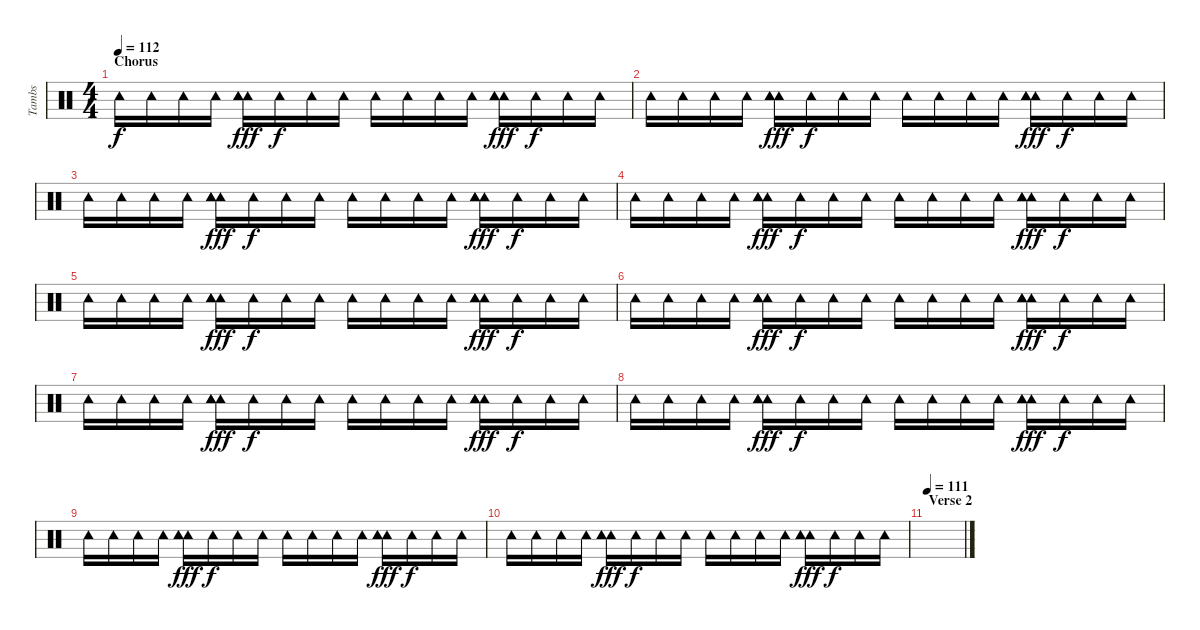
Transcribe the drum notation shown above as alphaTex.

\track ("Tambs" "Tambs") {instrument percussion}
\staff {score}
\articulation defaults
\ts (4 4)
\section ("" "Chorus")
\tempo 112
\clef neutral
\ks c "Tambourine (hit)".16{dy f} "Tambourine (hit)".16 "Tambourine (hit)".16 "Tambourine (hit)".16
("Tambourine (hit)" "Tambourine (hit)" "Tambourine (hit)").16{dy fff balance 6} "Tambourine (hit)".16{dy f balance 11} "Tambourine (hit)".16 "Tambourine (hit)".16 "Tambourine (hit)".16 "Tambourine (hit)".16 "Tambourine (hit)".16 "Tambourine (hit)".16 ("Tambourine (hit)" "Tambourine (hit)" "Tambourine (hit)").16{dy fff balance 6} "Tambourine (hit)".16{dy f balance 11} "Tambourine (hit)".16 "Tambourine (hit)".16 |
"Tambourine (hit)".16 "Tambourine (hit)".16 "Tambourine (hit)".16 "Tambourine (hit)".16 ("Tambourine (hit)" "Tambourine (hit)" "Tambourine (hit)").16{dy fff balance 6} "Tambourine (hit)".16{dy f balance 11} "Tambourine (hit)".16 "Tambourine (hit)".16 "Tambourine (hit)".16 "Tambourine (hit)".16 "Tambourine (hit)".16 "Tambourine (hit)".16 ("Tambourine (hit)" "Tambourine (hit)" "Tambourine (hit)").16{dy fff balance 6} "Tambourine (hit)".16{dy f balance 11} "Tambourine (hit)".16 "Tambourine (hit)".16 |
"Tambourine (hit)".16 "Tambourine (hit)".16 "Tambourine (hit)".16 "Tambourine (hit)".16 ("Tambourine (hit)" "Tambourine (hit)" "Tambourine (hit)").16{dy fff balance 6} "Tambourine (hit)".16{dy f balance 11} "Tambourine (hit)".16 "Tambourine (hit)".16 "Tambourine (hit)".16 "Tambourine (hit)".16 "Tambourine (hit)".16 "Tambourine (hit)".16 ("Tambourine (hit)" "Tambourine (hit)" "Tambourine (hit)").16{dy fff balance 6} "Tambourine (hit)".16{dy f balance 11} "Tambourine (hit)".16 "Tambourine (hit)".16 |
"Tambourine (hit)".16 "Tambourine (hit)".16 "Tambourine (hit)".16 "Tambourine (hit)".16 ("Tambourine (hit)" "Tambourine (hit)" "Tambourine (hit)").16{dy fff balance 6} "Tambourine (hit)".16{dy f balance 11} "Tambourine (hit)".16 "Tambourine (hit)".16 "Tambourine (hit)".16 "Tambourine (hit)".16 "Tambourine (hit)".16 "Tambourine (hit)".16 ("Tambourine (hit)" "Tambourine (hit)" "Tambourine (hit)").16{dy fff balance 6} "Tambourine (hit)".16{dy f balance 11} "Tambourine (hit)".16 "Tambourine (hit)".16 |
"Tambourine (hit)".16 "Tambourine (hit)".16 "Tambourine (hit)".16 "Tambourine (hit)".16 ("Tambourine (hit)" "Tambourine (hit)" "Tambourine (hit)").16{dy fff balance 6} "Tambourine (hit)".16{dy f balance 11} "Tambourine (hit)".16 "Tambourine (hit)".16 "Tambourine (hit)".16 "Tambourine (hit)".16 "Tambourine (hit)".16 "Tambourine (hit)".16 ("Tambourine (hit)" "Tambourine (hit)" "Tambourine (hit)").16{dy fff balance 6} "Tambourine (hit)".16{dy f balance 11} "Tambourine (hit)".16 "Tambourine (hit)".16 |
"Tambourine (hit)".16 "Tambourine (hit)".16 "Tambourine (hit)".16 "Tambourine (hit)".16 ("Tambourine (hit)" "Tambourine (hit)" "Tambourine (hit)").16{dy fff balance 6} "Tambourine (hit)".16{dy f balance 11} "Tambourine (hit)".16 "Tambourine (hit)".16 "Tambourine (hit)".16 "Tambourine (hit)".16 "Tambourine (hit)".16 "Tambourine (hit)".16 ("Tambourine (hit)" "Tambourine (hit)" "Tambourine (hit)").16{dy fff balance 6} "Tambourine (hit)".16{dy f balance 11} "Tambourine (hit)".16 "Tambourine (hit)".16 |
"Tambourine (hit)".16 "Tambourine (hit)".16 "Tambourine (hit)".16 "Tambourine (hit)".16 ("Tambourine (hit)" "Tambourine (hit)" "Tambourine (hit)").16{dy fff balance 6} "Tambourine (hit)".16{dy f balance 11} "Tambourine (hit)".16 "Tambourine (hit)".16 "Tambourine (hit)".16 "Tambourine (hit)".16 "Tambourine (hit)".16 "Tambourine (hit)".16 ("Tambourine (hit)" "Tambourine (hit)" "Tambourine (hit)").16{dy fff balance 6} "Tambourine (hit)".16{dy f balance 11} "Tambourine (hit)".16 "Tambourine (hit)".16 |
"Tambourine (hit)".16 "Tambourine (hit)".16 "Tambourine (hit)".16 "Tambourine (hit)".16 ("Tambourine (hit)" "Tambourine (hit)" "Tambourine (hit)").16{dy fff balance 6} "Tambourine (hit)".16{dy f balance 11} "Tambourine (hit)".16 "Tambourine (hit)".16 "Tambourine (hit)".16 "Tambourine (hit)".16 "Tambourine (hit)".16 "Tambourine (hit)".16 ("Tambourine (hit)" "Tambourine (hit)" "Tambourine (hit)").16{dy fff balance 6} "Tambourine (hit)".16{dy f balance 11} "Tambourine (hit)".16 "Tambourine (hit)".16 |
"Tambourine (hit)".16 "Tambourine (hit)".16 "Tambourine (hit)".16 "Tambourine (hit)".16 ("Tambourine (hit)" "Tambourine (hit)" "Tambourine (hit)").16{dy fff balance 6} "Tambourine (hit)".16{dy f balance 11} "Tambourine (hit)".16 "Tambourine (hit)".16 "Tambourine (hit)".16 "Tambourine (hit)".16 "Tambourine (hit)".16 "Tambourine (hit)".16 ("Tambourine (hit)" "Tambourine (hit)" "Tambourine (hit)").16{dy fff balance 6} "Tambourine (hit)".16{dy f balance 11} "Tambourine (hit)".16 "Tambourine (hit)".16 |
"Tambourine (hit)".16 "Tambourine (hit)".16 "Tambourine (hit)".16 "Tambourine (hit)".16 ("Tambourine (hit)" "Tambourine (hit)" "Tambourine (hit)").16{dy fff balance 6} "Tambourine (hit)".16{dy f balance 11} "Tambourine (hit)".16 "Tambourine (hit)".16 "Tambourine (hit)".16 "Tambourine (hit)".16 "Tambourine (hit)".16 "Tambourine (hit)".16 ("Tambourine (hit)" "Tambourine (hit)" "Tambourine (hit)").16{dy fff balance 6} "Tambourine (hit)".16{dy f balance 11} "Tambourine (hit)".16 "Tambourine (hit)".16 |
\section ("" "Verse 2")
\tempo 111
